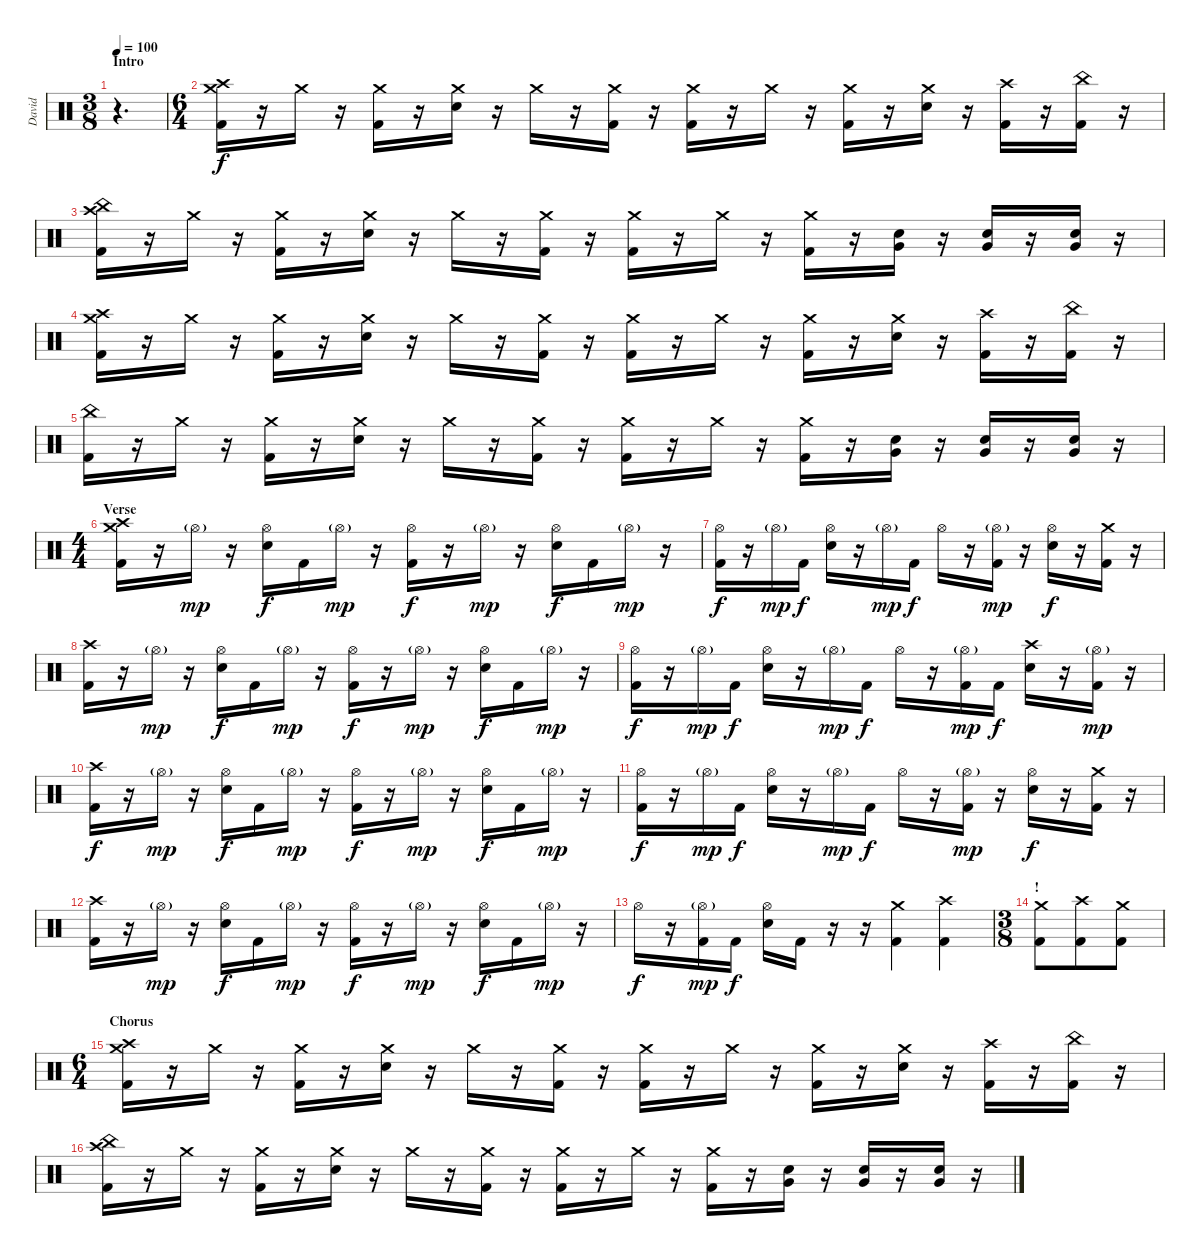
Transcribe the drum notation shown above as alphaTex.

\track ("David" "David") {instrument percussion}
\staff {score}
\articulation defaults
\ts (3 8)
\section ("" "Intro")
\tempo 100
\clef neutral
\ks c
r.4{d dy f} |
\ts (6 4)
("Crash medium (hit)" "Crash high (hit)" "Kick (hit) 2").16 r.16 "Crash medium (hit)".16 r.16 ("Crash medium (hit)" "Kick (hit) 2").16 r.16 ("Crash medium (hit)" "Electric Snare (hit)").16 r.16 "Crash medium (hit)".16 r.16 ("Crash medium (hit)" "Kick (hit) 2").16 r.16 ("Crash medium (hit)" "Kick (hit) 2").16 r.16 "Crash medium (hit)".16 r.16 ("Crash medium (hit)" "Kick (hit) 2").16 r.16 ("Crash medium (hit)" "Electric Snare (hit)").16 r.16 ("Crash high (hit)" "Kick (hit) 2").16 r.16 ("China (hit)" "Kick (hit) 2").16 r.16 |
("China (hit)" "Crash high (hit)" "Kick (hit) 2").16 r.16 "Crash medium (hit)".16 r.16 ("Crash medium (hit)" "Kick (hit) 2").16 r.16 ("Crash medium (hit)" "Electric Snare (hit)").16 r.16 "Crash medium (hit)".16 r.16 ("Crash medium (hit)" "Kick (hit) 2").16 r.16 ("Crash medium (hit)" "Kick (hit) 2").16 r.16 "Crash medium (hit)".16 r.16 ("Crash medium (hit)" "Kick (hit) 2").16 r.16 ("Electric Snare (hit)" "Very Low Tom (hit)").16 r.16 ("Electric Snare (hit)" "Very Low Tom (hit)").16 r.16 ("Electric Snare (hit)" "Very Low Tom (hit)").16 r.16 |
("Crash medium (hit)" "Crash high (hit)" "Kick (hit) 2").16 r.16 "Crash medium (hit)".16 r.16 ("Crash medium (hit)" "Kick (hit) 2").16 r.16 ("Crash medium (hit)" "Electric Snare (hit)").16 r.16 "Crash medium (hit)".16 r.16 ("Crash medium (hit)" "Kick (hit) 2").16 r.16 ("Crash medium (hit)" "Kick (hit) 2").16 r.16 "Crash medium (hit)".16 r.16 ("Crash medium (hit)" "Kick (hit) 2").16 r.16 ("Crash medium (hit)" "Electric Snare (hit)").16 r.16 ("Crash high (hit)" "Kick (hit) 2").16 r.16 ("China (hit)" "Kick (hit) 2").16 r.16 |
("China (hit)" "Kick (hit) 2").16 r.16 "Crash medium (hit)".16 r.16 ("Crash medium (hit)" "Kick (hit) 2").16 r.16 ("Crash medium (hit)" "Electric Snare (hit)").16 r.16 "Crash medium (hit)".16 r.16 ("Crash medium (hit)" "Kick (hit) 2").16 r.16 ("Crash medium (hit)" "Kick (hit) 2").16 r.16 "Crash medium (hit)".16 r.16 ("Crash medium (hit)" "Kick (hit) 2").16 r.16 ("Electric Snare (hit)" "Very Low Tom (hit)").16 r.16 ("Electric Snare (hit)" "Very Low Tom (hit)").16 r.16 ("Electric Snare (hit)" "Very Low Tom (hit)").16 r.16 |
\ts (4 4)
\section ("" "Verse")
("Crash high (hit)" "Crash medium (hit)" "Kick (hit) 2").16 r.16 "Hi-Hat (open)"{g}.16{dy mp} r.16 ("Hi-Hat (open)" "Electric Snare (hit)").16{dy f} "Kick (hit) 2".16 "Hi-Hat (open)"{g}.16{dy mp} r.16 ("Hi-Hat (open)" "Kick (hit) 2").16{dy f} r.16 "Hi-Hat (open)"{g}.16{dy mp} r.16 ("Hi-Hat (open)" "Electric Snare (hit)").16{dy f} "Kick (hit) 2".16 "Hi-Hat (open)"{g}.16{dy mp} r.16 |
("Hi-Hat (open)" "Kick (hit) 2").16{dy f} r.16 "Hi-Hat (open)"{g}.16{dy mp} "Kick (hit) 2".16{dy f} ("Hi-Hat (open)" "Electric Snare (hit)").16 r.16 "Hi-Hat (open)"{g}.16{dy mp} "Kick (hit) 2".16{dy f} "Hi-Hat (open)".16 r.16 ("Hi-Hat (open)"{g} "Kick (hit) 2").16{dy mp} r.16 ("Hi-Hat (open)" "Electric Snare (hit)").16{dy f} r.16 ("Crash medium (hit)" "Kick (hit) 2").16 r.16 |
("Crash high (hit)" "Kick (hit) 2").16 r.16 "Hi-Hat (open)"{g}.16{dy mp} r.16 ("Hi-Hat (open)" "Electric Snare (hit)").16{dy f} "Kick (hit) 2".16 "Hi-Hat (open)"{g}.16{dy mp} r.16 ("Hi-Hat (open)" "Kick (hit) 2").16{dy f} r.16 "Hi-Hat (open)"{g}.16{dy mp} r.16 ("Hi-Hat (open)" "Electric Snare (hit)").16{dy f} "Kick (hit) 2".16 "Hi-Hat (open)"{g}.16{dy mp} r.16 |
("Hi-Hat (open)" "Kick (hit) 2").16{dy f} r.16 "Hi-Hat (open)"{g}.16{dy mp} "Kick (hit) 2".16{dy f} ("Hi-Hat (open)" "Electric Snare (hit)").16 r.16 "Hi-Hat (open)"{g}.16{dy mp} "Kick (hit) 2".16{dy f} "Hi-Hat (open)".16 r.16 ("Hi-Hat (open)"{g} "Kick (hit) 2").16{dy mp} "Kick (hit) 2".16{dy f} ("Crash high (hit)" "Electric Snare (hit)").16 r.16 ("Hi-Hat (open)"{g} "Kick (hit) 2").16{dy mp} r.16 |
("Crash high (hit)" "Kick (hit) 2").16{dy f} r.16 "Hi-Hat (open)"{g}.16{dy mp} r.16 ("Hi-Hat (open)" "Electric Snare (hit)").16{dy f} "Kick (hit) 2".16 "Hi-Hat (open)"{g}.16{dy mp} r.16 ("Hi-Hat (open)" "Kick (hit) 2").16{dy f} r.16 "Hi-Hat (open)"{g}.16{dy mp} r.16 ("Hi-Hat (open)" "Electric Snare (hit)").16{dy f} "Kick (hit) 2".16 "Hi-Hat (open)"{g}.16{dy mp} r.16 |
("Hi-Hat (open)" "Kick (hit) 2").16{dy f} r.16 "Hi-Hat (open)"{g}.16{dy mp} "Kick (hit) 2".16{dy f} ("Hi-Hat (open)" "Electric Snare (hit)").16 r.16 "Hi-Hat (open)"{g}.16{dy mp} "Kick (hit) 2".16{dy f} "Hi-Hat (open)".16 r.16 ("Hi-Hat (open)"{g} "Kick (hit) 2").16{dy mp} r.16 ("Hi-Hat (open)" "Electric Snare (hit)").16{dy f} r.16 ("Crash medium (hit)" "Kick (hit) 2").16 r.16 |
("Crash high (hit)" "Kick (hit) 2").16 r.16 "Hi-Hat (open)"{g}.16{dy mp} r.16 ("Hi-Hat (open)" "Electric Snare (hit)").16{dy f} "Kick (hit) 2".16 "Hi-Hat (open)"{g}.16{dy mp} r.16 ("Hi-Hat (open)" "Kick (hit) 2").16{dy f} r.16 "Hi-Hat (open)"{g}.16{dy mp} r.16 ("Hi-Hat (open)" "Electric Snare (hit)").16{dy f} "Kick (hit) 2".16 "Hi-Hat (open)"{g}.16{dy mp} r.16 |
"Hi-Hat (open)".16{dy f} r.16 ("Hi-Hat (open)"{g} "Kick (hit) 2").16{dy mp} "Kick (hit) 2".16{dy f} ("Hi-Hat (open)" "Electric Snare (hit)").16 "Kick (hit) 2".16 r.16 r.16 ("Crash medium (hit)" "Kick (hit) 2").4 ("Crash high (hit)" "Kick (hit) 2").4 |
\ts (3 8)
\section ("" "!")
("Crash medium (hit)" "Kick (hit) 2").8 ("Crash high (hit)" "Kick (hit) 2").8 ("Crash medium (hit)" "Kick (hit) 2").8 |
\ts (6 4)
\section ("" "Chorus")
("Crash medium (hit)" "Crash high (hit)" "Kick (hit) 2").16 r.16 "Crash medium (hit)".16 r.16 ("Crash medium (hit)" "Kick (hit) 2").16 r.16 ("Crash medium (hit)" "Electric Snare (hit)").16 r.16 "Crash medium (hit)".16 r.16 ("Crash medium (hit)" "Kick (hit) 2").16 r.16 ("Crash medium (hit)" "Kick (hit) 2").16 r.16 "Crash medium (hit)".16 r.16 ("Crash medium (hit)" "Kick (hit) 2").16 r.16 ("Crash medium (hit)" "Electric Snare (hit)").16 r.16 ("Crash high (hit)" "Kick (hit) 2").16 r.16 ("China (hit)" "Kick (hit) 2").16 r.16 |
("China (hit)" "Crash high (hit)" "Kick (hit) 2").16 r.16 "Crash medium (hit)".16 r.16 ("Crash medium (hit)" "Kick (hit) 2").16 r.16 ("Crash medium (hit)" "Electric Snare (hit)").16 r.16 "Crash medium (hit)".16 r.16 ("Crash medium (hit)" "Kick (hit) 2").16 r.16 ("Crash medium (hit)" "Kick (hit) 2").16 r.16 "Crash medium (hit)".16 r.16 ("Crash medium (hit)" "Kick (hit) 2").16 r.16 ("Electric Snare (hit)" "Very Low Tom (hit)").16 r.16 ("Electric Snare (hit)" "Very Low Tom (hit)").16 r.16 ("Electric Snare (hit)" "Very Low Tom (hit)").16 r.16
